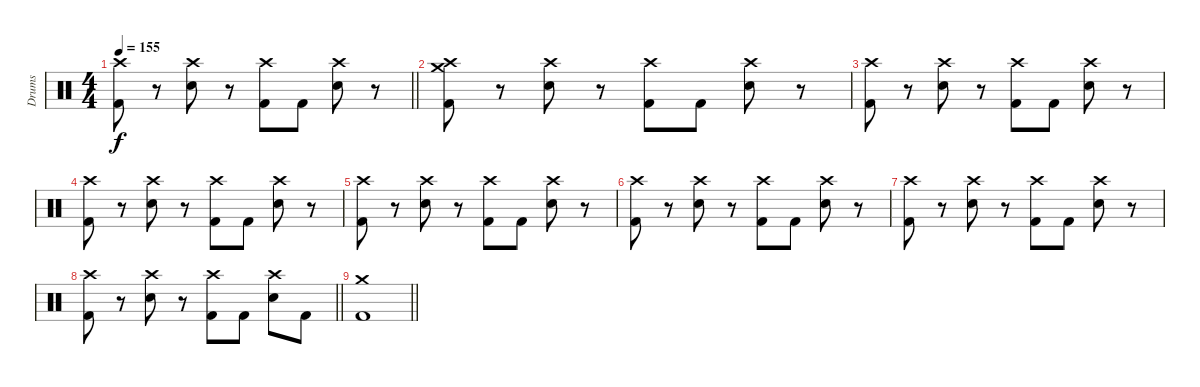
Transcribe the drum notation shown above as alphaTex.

\track ("Drums" "Drums") {instrument percussion}
\staff {score}
\articulation defaults
\ts (4 4)
\tempo 155
\clef neutral
\barLineRight lightlight
\ks c
("Crash high (hit)" "Kick (hit) 2").8{dy f} r.8 ("Crash high (hit)" "Electric Snare (hit)").8 r.8 ("Crash high (hit)" "Kick (hit) 2").8 "Kick (hit) 2".8 ("Crash high (hit)" "Electric Snare (hit)").8 r.8 |
("Crash medium (hit)" "Crash high (hit)" "Kick (hit) 2").8 r.8 ("Crash high (hit)" "Electric Snare (hit)").8 r.8 ("Crash high (hit)" "Kick (hit) 2").8 "Kick (hit) 2".8 ("Crash high (hit)" "Electric Snare (hit)").8 r.8 |
("Crash high (hit)" "Kick (hit) 2").8 r.8 ("Crash high (hit)" "Electric Snare (hit)").8 r.8 ("Crash high (hit)" "Kick (hit) 2").8 "Kick (hit) 2".8 ("Crash high (hit)" "Electric Snare (hit)").8 r.8 |
("Crash high (hit)" "Kick (hit) 2").8 r.8 ("Crash high (hit)" "Electric Snare (hit)").8 r.8 ("Crash high (hit)" "Kick (hit) 2").8 "Kick (hit) 2".8 ("Crash high (hit)" "Electric Snare (hit)").8 r.8 |
("Crash high (hit)" "Kick (hit) 2").8 r.8 ("Crash high (hit)" "Electric Snare (hit)").8 r.8 ("Crash high (hit)" "Kick (hit) 2").8 "Kick (hit) 2".8 ("Crash high (hit)" "Electric Snare (hit)").8 r.8 |
("Crash high (hit)" "Kick (hit) 2").8 r.8 ("Crash high (hit)" "Electric Snare (hit)").8 r.8 ("Crash high (hit)" "Kick (hit) 2").8 "Kick (hit) 2".8 ("Crash high (hit)" "Electric Snare (hit)").8 r.8 |
("Crash high (hit)" "Kick (hit) 2").8 r.8 ("Crash high (hit)" "Electric Snare (hit)").8 r.8 ("Crash high (hit)" "Kick (hit) 2").8 "Kick (hit) 2".8 ("Crash high (hit)" "Electric Snare (hit)").8 r.8 |
\barLineRight lightlight
("Crash high (hit)" "Kick (hit) 2").8 r.8 ("Crash high (hit)" "Electric Snare (hit)").8 r.8 ("Crash high (hit)" "Kick (hit) 2").8 "Kick (hit) 2".8 ("Crash high (hit)" "Electric Snare (hit)").8 "Kick (hit) 2".8 |
\barLineRight lightlight
("Crash medium (hit)" "Kick (hit) 2").1
